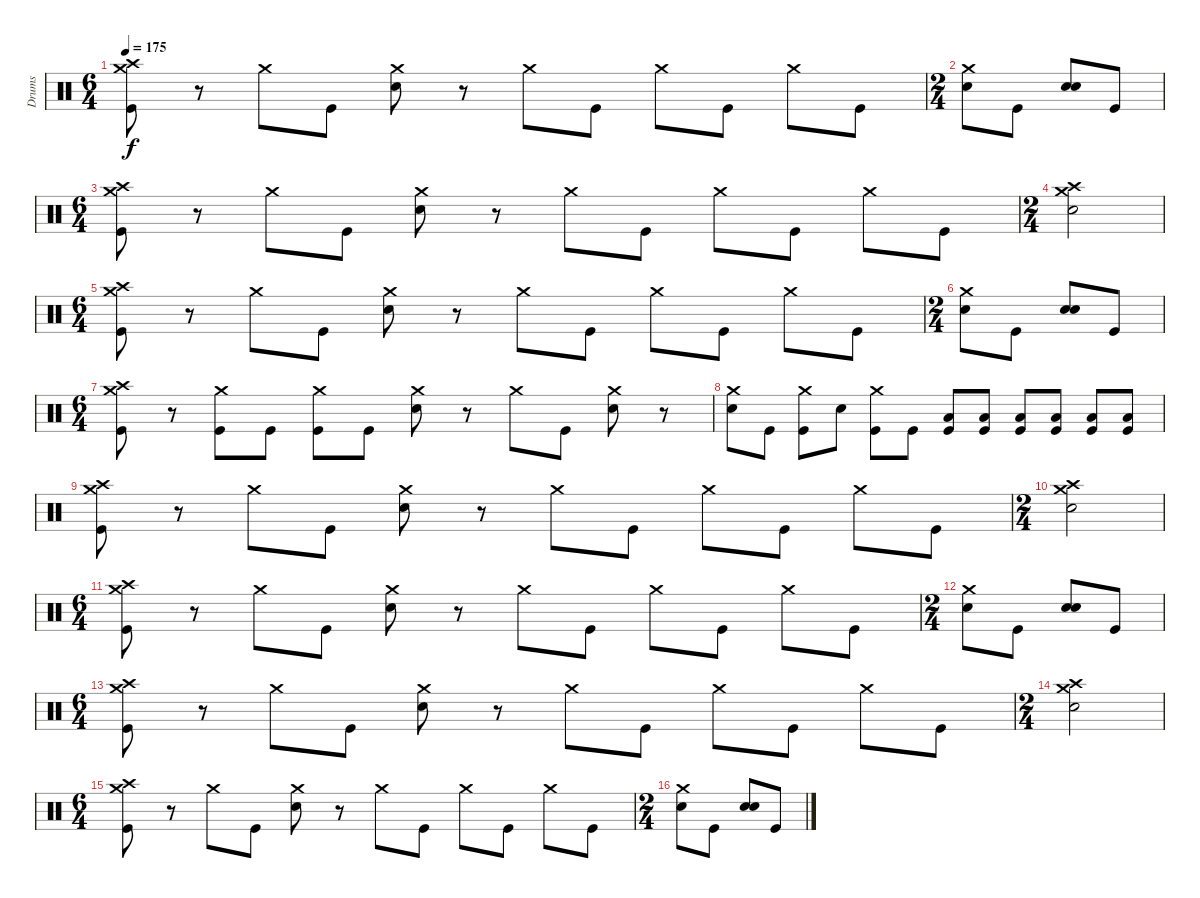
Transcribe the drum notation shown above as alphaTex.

\track ("Drums" "Drums") {instrument percussion}
\staff {score}
\articulation defaults
\ts (6 4)
\tempo 175
\clef neutral
\ks c
("Crash high (hit)" "Crash medium (hit)" "Kick (hit)").8{dy f} r.8 "Crash medium (hit)".8 "Kick (hit)".8 ("Crash medium (hit)" "Snare (hit) 2").8 r.8 "Crash medium (hit)".8 "Kick (hit)".8 "Crash medium (hit)".8 "Kick (hit)".8 "Crash medium (hit)".8 "Kick (hit)".8 |
\ts (2 4)
("Crash medium (hit)" "Snare (hit) 2").8 "Kick (hit)".8 ("Snare (hit) 2" "Snare (hit) 2").8 "Kick (hit)".8 |
\ts (6 4)
("Crash high (hit)" "Crash medium (hit)" "Kick (hit)").8 r.8 "Crash medium (hit)".8 "Kick (hit)".8 ("Crash medium (hit)" "Snare (hit) 2").8 r.8 "Crash medium (hit)".8 "Kick (hit)".8 "Crash medium (hit)".8 "Kick (hit)".8 "Crash medium (hit)".8 "Kick (hit)".8 |
\ts (2 4)
("Crash high (hit)" "Crash medium (hit)" "Snare (hit) 2").2 |
\ts (6 4)
("Crash high (hit)" "Crash medium (hit)" "Kick (hit)").8 r.8 "Crash medium (hit)".8 "Kick (hit)".8 ("Crash medium (hit)" "Snare (hit) 2").8 r.8 "Crash medium (hit)".8 "Kick (hit)".8 "Crash medium (hit)".8 "Kick (hit)".8 "Crash medium (hit)".8 "Kick (hit)".8 |
\ts (2 4)
("Crash medium (hit)" "Snare (hit) 2").8 "Kick (hit)".8 ("Snare (hit) 2" "Snare (hit) 2").8 "Kick (hit)".8 |
\ts (6 4)
("Crash high (hit)" "Crash medium (hit)" "Kick (hit)").8 r.8 ("Crash medium (hit)" "Kick (hit)").8 "Kick (hit)".8 ("Crash medium (hit)" "Kick (hit)").8 "Kick (hit)".8 ("Crash medium (hit)" "Snare (hit) 2").8 r.8 "Crash medium (hit)".8 "Kick (hit)".8 ("Crash medium (hit)" "Snare (hit) 2").8 r.8 |
("Crash medium (hit)" "Snare (hit) 2").8 "Kick (hit)".8 ("Crash medium (hit)" "Kick (hit)").8 "Snare (hit) 2".8 ("Crash medium (hit)" "Kick (hit)").8 "Kick (hit)".8 ("Low Floor Tom (hit)" "Kick (hit)").8 ("Low Floor Tom (hit)" "Kick (hit)").8 ("Low Floor Tom (hit)" "Kick (hit)").8 ("Low Floor Tom (hit)" "Kick (hit)").8 ("Low Floor Tom (hit)" "Kick (hit)").8 ("Low Floor Tom (hit)" "Kick (hit)").8 |
("Crash high (hit)" "Crash medium (hit)" "Kick (hit)").8 r.8 "Crash medium (hit)".8 "Kick (hit)".8 ("Crash medium (hit)" "Snare (hit) 2").8 r.8 "Crash medium (hit)".8 "Kick (hit)".8 "Crash medium (hit)".8 "Kick (hit)".8 "Crash medium (hit)".8 "Kick (hit)".8 |
\ts (2 4)
("Crash high (hit)" "Crash medium (hit)" "Snare (hit) 2").2 |
\ts (6 4)
("Crash high (hit)" "Crash medium (hit)" "Kick (hit)").8 r.8 "Crash medium (hit)".8 "Kick (hit)".8 ("Crash medium (hit)" "Snare (hit) 2").8 r.8 "Crash medium (hit)".8 "Kick (hit)".8 "Crash medium (hit)".8 "Kick (hit)".8 "Crash medium (hit)".8 "Kick (hit)".8 |
\ts (2 4)
("Crash medium (hit)" "Snare (hit) 2").8 "Kick (hit)".8 ("Snare (hit) 2" "Snare (hit) 2").8 "Kick (hit)".8 |
\ts (6 4)
("Crash high (hit)" "Crash medium (hit)" "Kick (hit)").8 r.8 "Crash medium (hit)".8 "Kick (hit)".8 ("Crash medium (hit)" "Snare (hit) 2").8 r.8 "Crash medium (hit)".8 "Kick (hit)".8 "Crash medium (hit)".8 "Kick (hit)".8 "Crash medium (hit)".8 "Kick (hit)".8 |
\ts (2 4)
("Crash high (hit)" "Crash medium (hit)" "Snare (hit) 2").2 |
\ts (6 4)
("Crash high (hit)" "Crash medium (hit)" "Kick (hit)").8 r.8 "Crash medium (hit)".8 "Kick (hit)".8 ("Crash medium (hit)" "Snare (hit) 2").8 r.8 "Crash medium (hit)".8 "Kick (hit)".8 "Crash medium (hit)".8 "Kick (hit)".8 "Crash medium (hit)".8 "Kick (hit)".8 |
\ts (2 4)
("Crash medium (hit)" "Snare (hit) 2").8 "Kick (hit)".8 ("Snare (hit) 2" "Snare (hit) 2").8 "Kick (hit)".8
